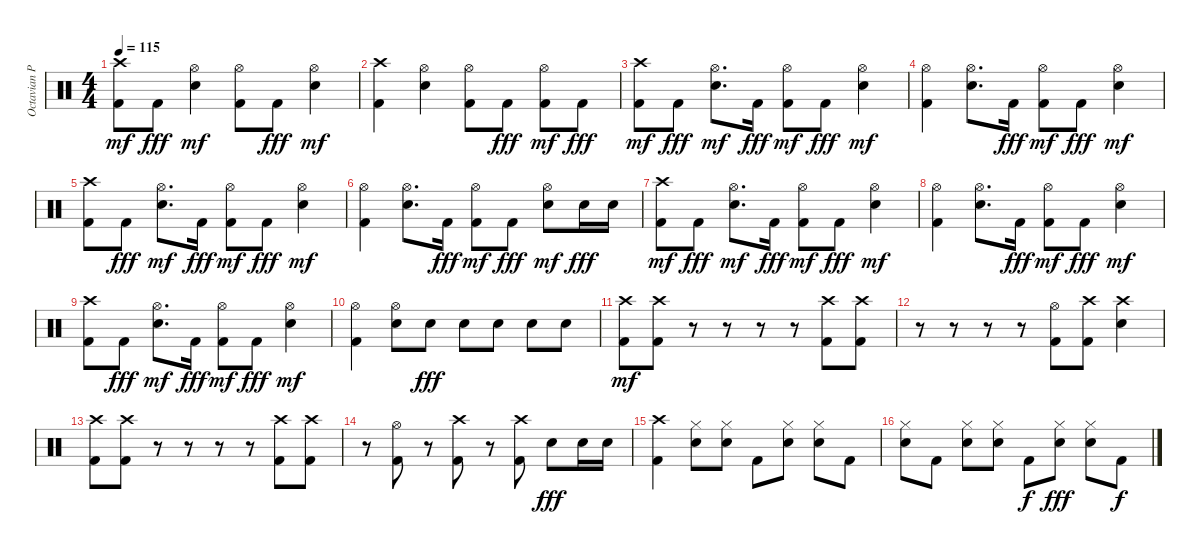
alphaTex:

\track ("Octavian Pilan" "Octavian P") {instrument percussion}
\staff {score}
\articulation defaults
\ts (4 4)
\tempo 115
\clef neutral
\ks c
("Kick (hit) 2" "Crash high (hit)").8{dy mf} "Kick (hit) 2".8{dy fff} ("Electric Snare (hit)" "Hi-Hat (open)").4{dy mf} ("Kick (hit) 2" "Hi-Hat (open)").8 "Kick (hit) 2".8{dy fff} ("Electric Snare (hit)" "Hi-Hat (open)").4{dy mf} |
("Kick (hit) 2" "Crash high (hit)").4 ("Electric Snare (hit)" "Hi-Hat (open)").4 ("Kick (hit) 2" "Hi-Hat (open)").8 "Kick (hit) 2".8{dy fff} ("Kick (hit) 2" "Hi-Hat (open)").8{dy mf} "Kick (hit) 2".8{dy fff} |
("Kick (hit) 2" "Crash high (hit)").8{dy mf} "Kick (hit) 2".8{dy fff} ("Electric Snare (hit)" "Hi-Hat (open)").8{d dy mf} "Kick (hit) 2".16{dy fff} ("Kick (hit) 2" "Hi-Hat (open)").8{dy mf} "Kick (hit) 2".8{dy fff} ("Electric Snare (hit)" "Hi-Hat (open)").4{dy mf} |
("Kick (hit) 2" "Hi-Hat (open)").4 ("Electric Snare (hit)" "Hi-Hat (open)").8{d} "Kick (hit) 2".16{dy fff} ("Kick (hit) 2" "Hi-Hat (open)").8{dy mf} "Kick (hit) 2".8{dy fff} ("Electric Snare (hit)" "Hi-Hat (open)").4{dy mf} |
("Kick (hit) 2" "Crash high (hit)").8 "Kick (hit) 2".8{dy fff} ("Electric Snare (hit)" "Hi-Hat (open)").8{d dy mf} "Kick (hit) 2".16{dy fff} ("Kick (hit) 2" "Hi-Hat (open)").8{dy mf} "Kick (hit) 2".8{dy fff} ("Electric Snare (hit)" "Hi-Hat (open)").4{dy mf} |
("Kick (hit) 2" "Hi-Hat (open)").4 ("Electric Snare (hit)" "Hi-Hat (open)").8{d} "Kick (hit) 2".16{dy fff} ("Kick (hit) 2" "Hi-Hat (open)").8{dy mf} "Kick (hit) 2".8{dy fff} ("Electric Snare (hit)" "Hi-Hat (open)").8{dy mf} "Electric Snare (hit)".16{dy fff} "Electric Snare (hit)".16 |
("Kick (hit) 2" "Crash high (hit)").8{dy mf} "Kick (hit) 2".8{dy fff} ("Electric Snare (hit)" "Hi-Hat (open)").8{d dy mf} "Kick (hit) 2".16{dy fff} ("Kick (hit) 2" "Hi-Hat (open)").8{dy mf} "Kick (hit) 2".8{dy fff} ("Electric Snare (hit)" "Hi-Hat (open)").4{dy mf} |
("Kick (hit) 2" "Hi-Hat (open)").4 ("Electric Snare (hit)" "Hi-Hat (open)").8{d} "Kick (hit) 2".16{dy fff} ("Kick (hit) 2" "Hi-Hat (open)").8{dy mf} "Kick (hit) 2".8{dy fff} ("Electric Snare (hit)" "Hi-Hat (open)").4{dy mf} |
("Kick (hit) 2" "Crash high (hit)").8 "Kick (hit) 2".8{dy fff} ("Electric Snare (hit)" "Hi-Hat (open)").8{d dy mf} "Kick (hit) 2".16{dy fff} ("Kick (hit) 2" "Hi-Hat (open)").8{dy mf} "Kick (hit) 2".8{dy fff} ("Electric Snare (hit)" "Hi-Hat (open)").4{dy mf} |
("Kick (hit) 2" "Hi-Hat (open)").4 ("Electric Snare (hit)" "Hi-Hat (open)").8 "Electric Snare (hit)".8{dy fff} "Electric Snare (hit)".8 "Electric Snare (hit)".8 "Electric Snare (hit)".8 "Electric Snare (hit)".8 |
("Kick (hit) 2" "Crash high (hit)").8{dy mf} ("Kick (hit) 2" "Crash high (hit)").8 r.8 r.8 r.8 r.8 ("Kick (hit) 2" "Crash high (hit)").8 ("Kick (hit) 2" "Crash high (hit)").8 |
r.8 r.8 r.8 r.8 ("Kick (hit) 2" "Hi-Hat (open)").8 ("Kick (hit) 2" "Crash high (hit)").8 ("Electric Snare (hit)" "Crash high (hit)").4 |
("Kick (hit) 2" "Crash high (hit)").8 ("Kick (hit) 2" "Crash high (hit)").8 r.8 r.8 r.8 r.8 ("Kick (hit) 2" "Crash high (hit)").8 ("Kick (hit) 2" "Crash high (hit)").8 |
r.8 ("Kick (hit) 2" "Hi-Hat (open)").8 r.8 ("Kick (hit) 2" "Crash high (hit)").8 r.8 ("Kick (hit) 2" "Crash high (hit)").8 "Electric Snare (hit)".8{dy fff} "Electric Snare (hit)".16 "Electric Snare (hit)".16 |
("Kick (hit) 2" "Crash high (hit)").4 ("Electric Snare (hit)" "Hi-Hat (closed)").8 ("Electric Snare (hit)" "Hi-Hat (closed)").8 "Kick (hit) 2".8 ("Electric Snare (hit)" "Hi-Hat (closed)").8 ("Electric Snare (hit)" "Hi-Hat (closed)").8 "Kick (hit) 2".8 |
("Electric Snare (hit)" "Hi-Hat (closed)").8 "Kick (hit) 2".8 ("Electric Snare (hit)" "Hi-Hat (closed)").8 ("Electric Snare (hit)" "Hi-Hat (closed)").8 "Kick (hit) 2".8{dy f} ("Electric Snare (hit)" "Hi-Hat (closed)").8{dy fff} ("Electric Snare (hit)" "Hi-Hat (closed)").8 "Kick (hit) 2".8{dy f}
